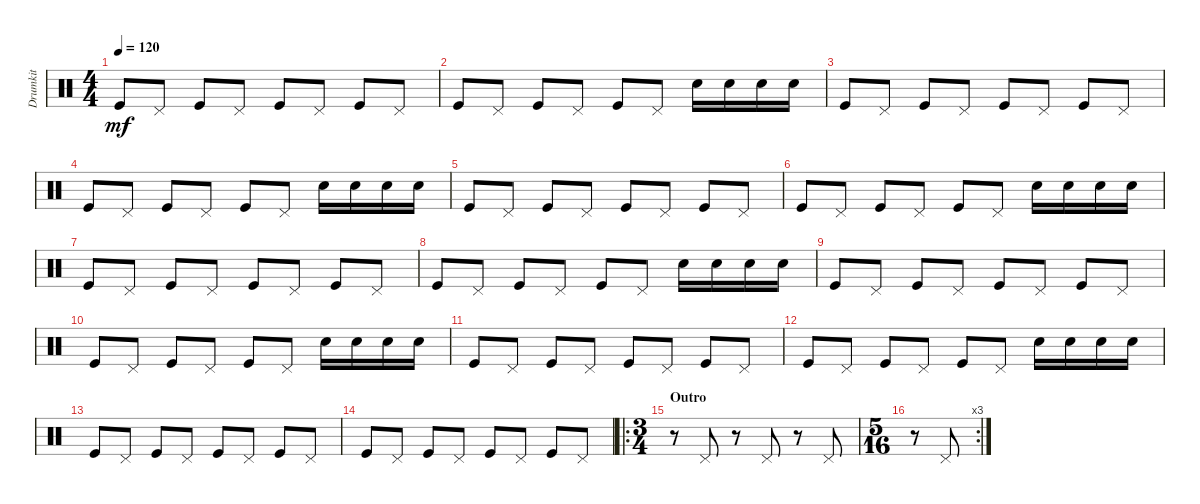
\track ("Drumkit" "Drumkit") {instrument percussion}
\staff {score}
\articulation defaults
\ts (4 4)
\tempo 120
\clef neutral
\ks c "Kick (hit)".8{dy mf} "Pedal Hi-Hat (hit)".8 "Kick (hit)".8 "Pedal Hi-Hat (hit)".8 "Kick (hit)".8 "Pedal Hi-Hat (hit)".8 "Kick (hit)".8 "Pedal Hi-Hat (hit)".8
|
"Kick (hit)".8 "Pedal Hi-Hat (hit)".8 "Kick (hit)".8 "Pedal Hi-Hat (hit)".8 "Kick (hit)".8 "Pedal Hi-Hat (hit)".8 "Snare (hit) 2".16 "Snare (hit) 2".16 "Snare (hit) 2".16 "Snare (hit) 2".16 |
"Kick (hit)".8 "Pedal Hi-Hat (hit)".8 "Kick (hit)".8 "Pedal Hi-Hat (hit)".8 "Kick (hit)".8 "Pedal Hi-Hat (hit)".8 "Kick (hit)".8 "Pedal Hi-Hat (hit)".8 |
"Kick (hit)".8 "Pedal Hi-Hat (hit)".8 "Kick (hit)".8 "Pedal Hi-Hat (hit)".8 "Kick (hit)".8 "Pedal Hi-Hat (hit)".8 "Snare (hit) 2".16 "Snare (hit) 2".16 "Snare (hit) 2".16 "Snare (hit) 2".16 |
"Kick (hit)".8 "Pedal Hi-Hat (hit)".8 "Kick (hit)".8 "Pedal Hi-Hat (hit)".8 "Kick (hit)".8 "Pedal Hi-Hat (hit)".8 "Kick (hit)".8 "Pedal Hi-Hat (hit)".8 |
"Kick (hit)".8 "Pedal Hi-Hat (hit)".8 "Kick (hit)".8 "Pedal Hi-Hat (hit)".8 "Kick (hit)".8 "Pedal Hi-Hat (hit)".8 "Snare (hit) 2".16 "Snare (hit) 2".16 "Snare (hit) 2".16 "Snare (hit) 2".16 |
"Kick (hit)".8 "Pedal Hi-Hat (hit)".8 "Kick (hit)".8 "Pedal Hi-Hat (hit)".8 "Kick (hit)".8 "Pedal Hi-Hat (hit)".8 "Kick (hit)".8 "Pedal Hi-Hat (hit)".8 |
"Kick (hit)".8 "Pedal Hi-Hat (hit)".8 "Kick (hit)".8 "Pedal Hi-Hat (hit)".8 "Kick (hit)".8 "Pedal Hi-Hat (hit)".8 "Snare (hit) 2".16 "Snare (hit) 2".16 "Snare (hit) 2".16 "Snare (hit) 2".16 |
"Kick (hit)".8 "Pedal Hi-Hat (hit)".8 "Kick (hit)".8 "Pedal Hi-Hat (hit)".8 "Kick (hit)".8 "Pedal Hi-Hat (hit)".8 "Kick (hit)".8 "Pedal Hi-Hat (hit)".8 |
"Kick (hit)".8 "Pedal Hi-Hat (hit)".8 "Kick (hit)".8 "Pedal Hi-Hat (hit)".8 "Kick (hit)".8 "Pedal Hi-Hat (hit)".8 "Snare (hit) 2".16 "Snare (hit) 2".16 "Snare (hit) 2".16 "Snare (hit) 2".16 |
"Kick (hit)".8 "Pedal Hi-Hat (hit)".8 "Kick (hit)".8 "Pedal Hi-Hat (hit)".8 "Kick (hit)".8 "Pedal Hi-Hat (hit)".8 "Kick (hit)".8 "Pedal Hi-Hat (hit)".8 |
"Kick (hit)".8 "Pedal Hi-Hat (hit)".8 "Kick (hit)".8 "Pedal Hi-Hat (hit)".8 "Kick (hit)".8 "Pedal Hi-Hat (hit)".8 "Snare (hit) 2".16 "Snare (hit) 2".16 "Snare (hit) 2".16 "Snare (hit) 2".16 |
"Kick (hit)".8 "Pedal Hi-Hat (hit)".8 "Kick (hit)".8 "Pedal Hi-Hat (hit)".8 "Kick (hit)".8 "Pedal Hi-Hat (hit)".8 "Kick (hit)".8 "Pedal Hi-Hat (hit)".8 |
"Kick (hit)".8 "Pedal Hi-Hat (hit)".8 "Kick (hit)".8 "Pedal Hi-Hat (hit)".8 "Kick (hit)".8 "Pedal Hi-Hat (hit)".8 "Kick (hit)".8 "Pedal Hi-Hat (hit)".8 |
\ro
\ts (3 4)
\section ("" "Outro")
r.8 "Pedal Hi-Hat (hit)".8 r.8 "Pedal Hi-Hat (hit)".8 r.8 "Pedal Hi-Hat (hit)".8 |
\rc 3
\ts (5 16)
r.8 "Pedal Hi-Hat (hit)".8
